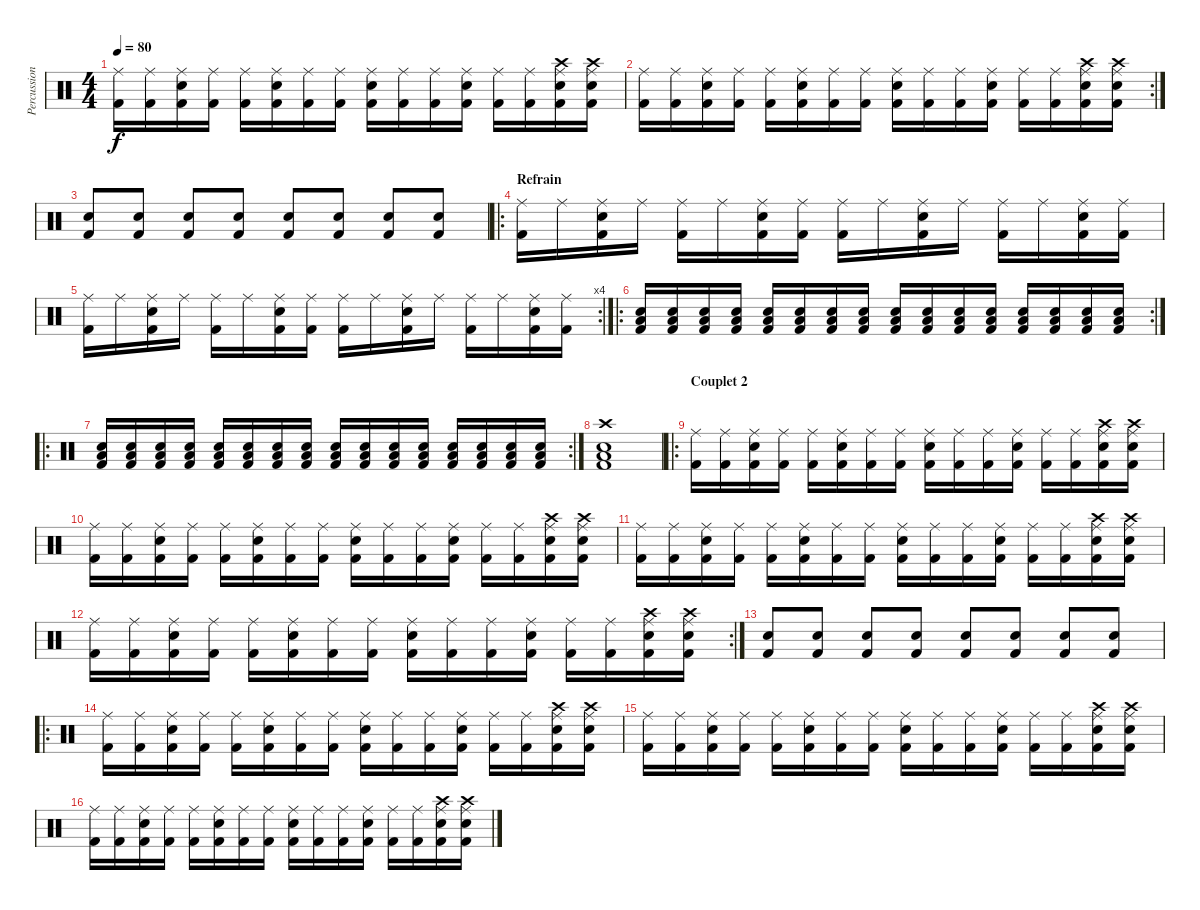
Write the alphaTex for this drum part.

\track ("Percussions" "Percussion") {instrument percussion}
\staff {score}
\articulation defaults
\ts (4 4)
\tempo 80
\clef neutral
\ks c
("Ride (middle)" "Kick (hit) 2").16{dy f} ("Ride (middle)" "Kick (hit) 2").16 ("Ride (middle)" "Snare (hit) 2" "Kick (hit) 2").16 ("Ride (middle)" "Kick (hit) 2").16 ("Ride (middle)" "Kick (hit) 2").16 ("Ride (middle)" "Snare (hit) 2" "Kick (hit) 2").16 ("Ride (middle)" "Kick (hit) 2").16 ("Ride (middle)" "Kick (hit) 2").16 ("Ride (middle)" "Snare (hit) 2" "Kick (hit) 2").16 ("Ride (middle)" "Kick (hit) 2").16 ("Ride (middle)" "Kick (hit) 2").16 ("Ride (middle)" "Snare (hit) 2" "Kick (hit) 2").16 ("Ride (middle)" "Kick (hit) 2").16 ("Ride (middle)" "Kick (hit) 2").16 ("Ride (middle)" "Snare (hit) 2" "Kick (hit) 2" "Crash high (hit)").16 ("Ride (middle)" "Snare (hit) 2" "Kick (hit) 2" "Crash high (hit)").16 |
\rc 2
("Ride (middle)" "Kick (hit) 2").16 ("Ride (middle)" "Kick (hit) 2").16 ("Ride (middle)" "Snare (hit) 2" "Kick (hit) 2").16 ("Ride (middle)" "Kick (hit) 2").16 ("Ride (middle)" "Kick (hit) 2").16 ("Ride (middle)" "Snare (hit) 2" "Kick (hit) 2").16 ("Ride (middle)" "Kick (hit) 2").16 ("Ride (middle)" "Kick (hit) 2").16 ("Ride (middle)" "Snare (hit) 2" "Kick (hit) 2").16 ("Ride (middle)" "Kick (hit) 2").16 ("Ride (middle)" "Kick (hit) 2").16 ("Ride (middle)" "Snare (hit) 2" "Kick (hit) 2").16 ("Ride (middle)" "Kick (hit) 2").16 ("Ride (middle)" "Kick (hit) 2").16 ("Ride (middle)" "Snare (hit) 2" "Kick (hit) 2" "Crash high (hit)").16 ("Ride (middle)" "Snare (hit) 2" "Kick (hit) 2" "Crash high (hit)").16 |
("Kick (hit) 2" "Electric Snare (hit)").8 ("Kick (hit) 2" "Electric Snare (hit)").8 ("Kick (hit) 2" "Electric Snare (hit)").8 ("Kick (hit) 2" "Electric Snare (hit)").8 ("Kick (hit) 2" "Electric Snare (hit)").8 ("Kick (hit) 2" "Electric Snare (hit)").8 ("Kick (hit) 2" "Electric Snare (hit)").8 ("Kick (hit) 2" "Electric Snare (hit)").8 |
\ro
\section ("" "Refrain")
("Ride (middle)" "Kick (hit) 2").16 "Ride (middle)".16 ("Ride (middle)" "Snare (hit) 2" "Kick (hit) 2").16 "Ride (middle)".16 ("Ride (middle)" "Kick (hit) 2").16 "Ride (middle)".16 ("Ride (middle)" "Snare (hit) 2" "Kick (hit) 2").16 ("Ride (middle)" "Kick (hit) 2").16 ("Ride (middle)" "Kick (hit) 2").16 "Ride (middle)".16 ("Ride (middle)" "Snare (hit) 2" "Kick (hit) 2").16 "Ride (middle)".16 ("Ride (middle)" "Kick (hit) 2").16 "Ride (middle)".16 ("Ride (middle)" "Snare (hit) 2" "Kick (hit) 2").16 ("Ride (middle)" "Kick (hit) 2").16 |
\rc 4
("Ride (middle)" "Kick (hit) 2").16 "Ride (middle)".16 ("Ride (middle)" "Snare (hit) 2" "Kick (hit) 2").16 "Ride (middle)".16 ("Ride (middle)" "Kick (hit) 2").16 "Ride (middle)".16 ("Ride (middle)" "Snare (hit) 2" "Kick (hit) 2").16 ("Ride (middle)" "Kick (hit) 2").16 ("Ride (middle)" "Kick (hit) 2").16 "Ride (middle)".16 ("Ride (middle)" "Snare (hit) 2" "Kick (hit) 2").16 "Ride (middle)".16 ("Ride (middle)" "Kick (hit) 2").16 "Ride (middle)".16 ("Ride (middle)" "Snare (hit) 2" "Kick (hit) 2").16 ("Ride (middle)" "Kick (hit) 2").16 |
\ro
\rc 2
("Snare (hit) 2" "Low Tom (hit)" "Kick (hit) 2").16 ("Snare (hit) 2" "Low Tom (hit)" "Kick (hit) 2").16 ("Snare (hit) 2" "Low Tom (hit)" "Kick (hit) 2").16 ("Snare (hit) 2" "Low Tom (hit)" "Kick (hit) 2").16 ("Snare (hit) 2" "Low Tom (hit)" "Kick (hit) 2").16 ("Snare (hit) 2" "Low Tom (hit)" "Kick (hit) 2").16 ("Snare (hit) 2" "Low Tom (hit)" "Kick (hit) 2").16 ("Snare (hit) 2" "Low Tom (hit)" "Kick (hit) 2").16 ("Snare (hit) 2" "Low Tom (hit)" "Kick (hit) 2").16 ("Snare (hit) 2" "Low Tom (hit)" "Kick (hit) 2").16 ("Snare (hit) 2" "Low Tom (hit)" "Kick (hit) 2").16 ("Snare (hit) 2" "Low Tom (hit)" "Kick (hit) 2").16 ("Snare (hit) 2" "Low Tom (hit)" "Kick (hit) 2").16 ("Snare (hit) 2" "Low Tom (hit)" "Kick (hit) 2").16 ("Snare (hit) 2" "Low Tom (hit)" "Kick (hit) 2").16 ("Snare (hit) 2" "Low Tom (hit)" "Kick (hit) 2").16 |
\ro
\rc 2
("Snare (hit) 2" "Low Tom (hit)" "Kick (hit) 2").16 ("Snare (hit) 2" "Low Tom (hit)" "Kick (hit) 2").16 ("Snare (hit) 2" "Low Tom (hit)" "Kick (hit) 2").16 ("Snare (hit) 2" "Low Tom (hit)" "Kick (hit) 2").16 ("Snare (hit) 2" "Low Tom (hit)" "Kick (hit) 2").16 ("Snare (hit) 2" "Low Tom (hit)" "Kick (hit) 2").16 ("Snare (hit) 2" "Low Tom (hit)" "Kick (hit) 2").16 ("Snare (hit) 2" "Low Tom (hit)" "Kick (hit) 2").16 ("Snare (hit) 2" "Low Tom (hit)" "Kick (hit) 2").16 ("Snare (hit) 2" "Low Tom (hit)" "Kick (hit) 2").16 ("Snare (hit) 2" "Low Tom (hit)" "Kick (hit) 2").16 ("Snare (hit) 2" "Low Tom (hit)" "Kick (hit) 2").16 ("Snare (hit) 2" "Low Tom (hit)" "Kick (hit) 2").16 ("Snare (hit) 2" "Low Tom (hit)" "Kick (hit) 2").16 ("Snare (hit) 2" "Low Tom (hit)" "Kick (hit) 2").16 ("Snare (hit) 2" "Low Tom (hit)" "Kick (hit) 2").16 |
("Crash high (hit)" "Snare (hit) 2" "Low Tom (hit)" "Kick (hit) 2").1 |
\ro
\section ("" "Couplet 2")
("Ride (middle)" "Kick (hit) 2").16 ("Ride (middle)" "Kick (hit) 2").16 ("Ride (middle)" "Snare (hit) 2" "Kick (hit) 2").16 ("Ride (middle)" "Kick (hit) 2").16 ("Ride (middle)" "Kick (hit) 2").16 ("Ride (middle)" "Snare (hit) 2" "Kick (hit) 2").16 ("Ride (middle)" "Kick (hit) 2").16 ("Ride (middle)" "Kick (hit) 2").16 ("Ride (middle)" "Snare (hit) 2" "Kick (hit) 2").16 ("Ride (middle)" "Kick (hit) 2").16 ("Ride (middle)" "Kick (hit) 2").16 ("Ride (middle)" "Snare (hit) 2" "Kick (hit) 2").16 ("Ride (middle)" "Kick (hit) 2").16 ("Ride (middle)" "Kick (hit) 2").16 ("Ride (middle)" "Snare (hit) 2" "Kick (hit) 2" "Crash high (hit)").16 ("Ride (middle)" "Snare (hit) 2" "Kick (hit) 2" "Crash high (hit)").16 |
("Ride (middle)" "Kick (hit) 2").16 ("Ride (middle)" "Kick (hit) 2").16 ("Ride (middle)" "Snare (hit) 2" "Kick (hit) 2").16 ("Ride (middle)" "Kick (hit) 2").16 ("Ride (middle)" "Kick (hit) 2").16 ("Ride (middle)" "Snare (hit) 2" "Kick (hit) 2").16 ("Ride (middle)" "Kick (hit) 2").16 ("Ride (middle)" "Kick (hit) 2").16 ("Ride (middle)" "Snare (hit) 2" "Kick (hit) 2").16 ("Ride (middle)" "Kick (hit) 2").16 ("Ride (middle)" "Kick (hit) 2").16 ("Ride (middle)" "Snare (hit) 2" "Kick (hit) 2").16 ("Ride (middle)" "Kick (hit) 2").16 ("Ride (middle)" "Kick (hit) 2").16 ("Ride (middle)" "Snare (hit) 2" "Kick (hit) 2" "Crash high (hit)").16 ("Ride (middle)" "Snare (hit) 2" "Kick (hit) 2" "Crash high (hit)").16 |
("Ride (middle)" "Kick (hit) 2").16 ("Ride (middle)" "Kick (hit) 2").16 ("Ride (middle)" "Snare (hit) 2" "Kick (hit) 2").16 ("Ride (middle)" "Kick (hit) 2").16 ("Ride (middle)" "Kick (hit) 2").16 ("Ride (middle)" "Snare (hit) 2" "Kick (hit) 2").16 ("Ride (middle)" "Kick (hit) 2").16 ("Ride (middle)" "Kick (hit) 2").16 ("Ride (middle)" "Snare (hit) 2" "Kick (hit) 2").16 ("Ride (middle)" "Kick (hit) 2").16 ("Ride (middle)" "Kick (hit) 2").16 ("Ride (middle)" "Snare (hit) 2" "Kick (hit) 2").16 ("Ride (middle)" "Kick (hit) 2").16 ("Ride (middle)" "Kick (hit) 2").16 ("Ride (middle)" "Snare (hit) 2" "Kick (hit) 2" "Crash high (hit)").16 ("Ride (middle)" "Snare (hit) 2" "Kick (hit) 2" "Crash high (hit)").16 |
\rc 2
("Ride (middle)" "Kick (hit) 2").16 ("Ride (middle)" "Kick (hit) 2").16 ("Ride (middle)" "Snare (hit) 2" "Kick (hit) 2").16 ("Ride (middle)" "Kick (hit) 2").16 ("Ride (middle)" "Kick (hit) 2").16 ("Ride (middle)" "Snare (hit) 2" "Kick (hit) 2").16 ("Ride (middle)" "Kick (hit) 2").16 ("Ride (middle)" "Kick (hit) 2").16 ("Ride (middle)" "Snare (hit) 2" "Kick (hit) 2").16 ("Ride (middle)" "Kick (hit) 2").16 ("Ride (middle)" "Kick (hit) 2").16 ("Ride (middle)" "Snare (hit) 2" "Kick (hit) 2").16 ("Ride (middle)" "Kick (hit) 2").16 ("Ride (middle)" "Kick (hit) 2").16 ("Ride (middle)" "Snare (hit) 2" "Kick (hit) 2" "Crash high (hit)").16 ("Ride (middle)" "Snare (hit) 2" "Kick (hit) 2" "Crash high (hit)").16 |
("Kick (hit) 2" "Electric Snare (hit)").8 ("Kick (hit) 2" "Electric Snare (hit)").8 ("Kick (hit) 2" "Electric Snare (hit)").8 ("Kick (hit) 2" "Electric Snare (hit)").8 ("Kick (hit) 2" "Electric Snare (hit)").8 ("Kick (hit) 2" "Electric Snare (hit)").8 ("Kick (hit) 2" "Electric Snare (hit)").8 ("Kick (hit) 2" "Electric Snare (hit)").8 |
\ro
("Ride (middle)" "Kick (hit) 2").16 ("Ride (middle)" "Kick (hit) 2").16 ("Ride (middle)" "Snare (hit) 2" "Kick (hit) 2").16 ("Ride (middle)" "Kick (hit) 2").16 ("Ride (middle)" "Kick (hit) 2").16 ("Ride (middle)" "Snare (hit) 2" "Kick (hit) 2").16 ("Ride (middle)" "Kick (hit) 2").16 ("Ride (middle)" "Kick (hit) 2").16 ("Ride (middle)" "Snare (hit) 2" "Kick (hit) 2").16 ("Ride (middle)" "Kick (hit) 2").16 ("Ride (middle)" "Kick (hit) 2").16 ("Ride (middle)" "Snare (hit) 2" "Kick (hit) 2").16 ("Ride (middle)" "Kick (hit) 2").16 ("Ride (middle)" "Kick (hit) 2").16 ("Ride (middle)" "Snare (hit) 2" "Kick (hit) 2" "Crash high (hit)").16 ("Ride (middle)" "Snare (hit) 2" "Kick (hit) 2" "Crash high (hit)").16 |
("Ride (middle)" "Kick (hit) 2").16 ("Ride (middle)" "Kick (hit) 2").16 ("Ride (middle)" "Snare (hit) 2" "Kick (hit) 2").16 ("Ride (middle)" "Kick (hit) 2").16 ("Ride (middle)" "Kick (hit) 2").16 ("Ride (middle)" "Snare (hit) 2" "Kick (hit) 2").16 ("Ride (middle)" "Kick (hit) 2").16 ("Ride (middle)" "Kick (hit) 2").16 ("Ride (middle)" "Snare (hit) 2" "Kick (hit) 2").16 ("Ride (middle)" "Kick (hit) 2").16 ("Ride (middle)" "Kick (hit) 2").16 ("Ride (middle)" "Snare (hit) 2" "Kick (hit) 2").16 ("Ride (middle)" "Kick (hit) 2").16 ("Ride (middle)" "Kick (hit) 2").16 ("Ride (middle)" "Snare (hit) 2" "Kick (hit) 2" "Crash high (hit)").16 ("Ride (middle)" "Snare (hit) 2" "Kick (hit) 2" "Crash high (hit)").16 |
("Ride (middle)" "Kick (hit) 2").16 ("Ride (middle)" "Kick (hit) 2").16 ("Ride (middle)" "Snare (hit) 2" "Kick (hit) 2").16 ("Ride (middle)" "Kick (hit) 2").16 ("Ride (middle)" "Kick (hit) 2").16 ("Ride (middle)" "Snare (hit) 2" "Kick (hit) 2").16 ("Ride (middle)" "Kick (hit) 2").16 ("Ride (middle)" "Kick (hit) 2").16 ("Ride (middle)" "Snare (hit) 2" "Kick (hit) 2").16 ("Ride (middle)" "Kick (hit) 2").16 ("Ride (middle)" "Kick (hit) 2").16 ("Ride (middle)" "Snare (hit) 2" "Kick (hit) 2").16 ("Ride (middle)" "Kick (hit) 2").16 ("Ride (middle)" "Kick (hit) 2").16 ("Ride (middle)" "Snare (hit) 2" "Kick (hit) 2" "Crash high (hit)").16 ("Ride (middle)" "Snare (hit) 2" "Kick (hit) 2" "Crash high (hit)").16
